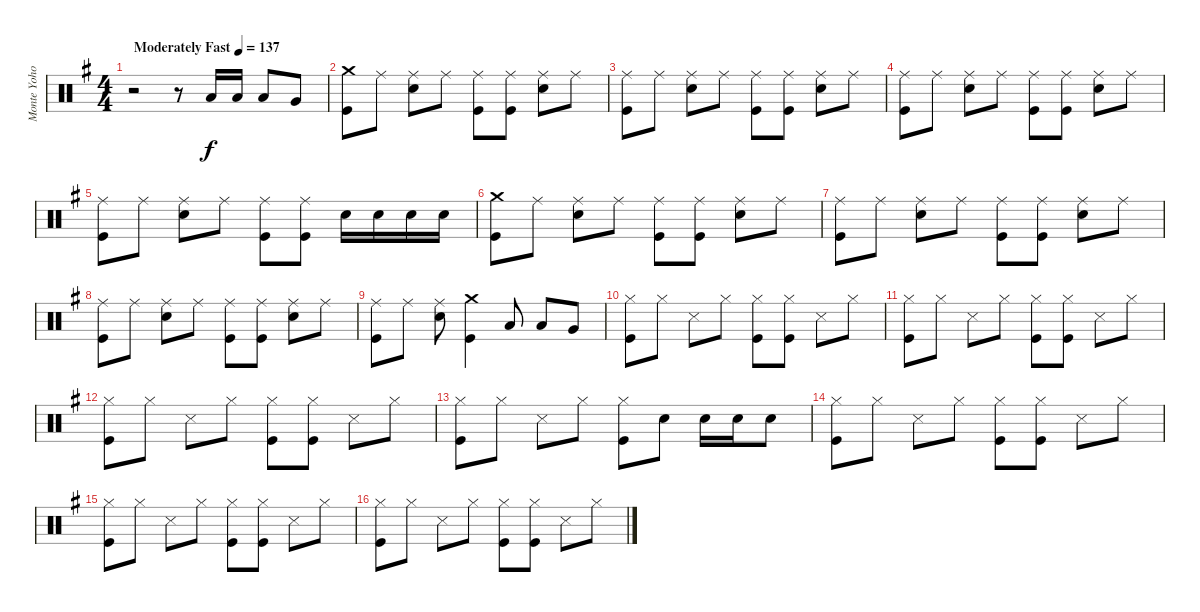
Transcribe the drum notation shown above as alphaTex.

\track ("Monte Yoho Drums" "Monte Yoho") {instrument percussion}
\staff {score}
\articulation defaults
\ts (4 4)
\tempo (137 "Moderately Fast")
\clef neutral
\ks g
r.2{dy f} r.8 "Low Tom (hit)".16 "Low Tom (hit)".16 "Low Tom (hit)".8 "Very Low Tom (hit)".8 |
("Crash medium (hit)" "Kick (hit)").8 "Ride (middle)".8 ("Ride (middle)" "Snare (hit) 2").8 "Ride (middle)".8 ("Ride (middle)" "Kick (hit)").8 ("Ride (middle)" "Kick (hit)").8 ("Ride (middle)" "Snare (hit) 2").8 "Ride (middle)".8 |
("Ride (middle)" "Kick (hit)").8 "Ride (middle)".8 ("Ride (middle)" "Snare (hit) 2").8 "Ride (middle)".8 ("Ride (middle)" "Kick (hit)").8 ("Ride (middle)" "Kick (hit)").8 ("Ride (middle)" "Snare (hit) 2").8 "Ride (middle)".8 |
("Ride (middle)" "Kick (hit)").8 "Ride (middle)".8 ("Ride (middle)" "Snare (hit) 2").8 "Ride (middle)".8 ("Ride (middle)" "Kick (hit)").8 ("Ride (middle)" "Kick (hit)").8 ("Ride (middle)" "Snare (hit) 2").8 "Ride (middle)".8 |
("Ride (middle)" "Kick (hit)").8 "Ride (middle)".8 ("Ride (middle)" "Snare (hit) 2").8 "Ride (middle)".8 ("Ride (middle)" "Kick (hit)").8 ("Ride (middle)" "Kick (hit)").8 "Snare (hit) 2".16 "Snare (hit) 2".16 "Snare (hit) 2".16 "Snare (hit) 2".16 |
("Crash medium (hit)" "Kick (hit)").8 "Ride (middle)".8 ("Ride (middle)" "Snare (hit) 2").8 "Ride (middle)".8 ("Ride (middle)" "Kick (hit)").8 ("Ride (middle)" "Kick (hit)").8 ("Ride (middle)" "Snare (hit) 2").8 "Ride (middle)".8 |
("Ride (middle)" "Kick (hit)").8 "Ride (middle)".8 ("Ride (middle)" "Snare (hit) 2").8 "Ride (middle)".8 ("Ride (middle)" "Kick (hit)").8 ("Ride (middle)" "Kick (hit)").8 ("Ride (middle)" "Snare (hit) 2").8 "Ride (middle)".8 |
("Ride (middle)" "Kick (hit)").8 "Ride (middle)".8 ("Ride (middle)" "Snare (hit) 2").8 "Ride (middle)".8 ("Ride (middle)" "Kick (hit)").8 ("Ride (middle)" "Kick (hit)").8 ("Ride (middle)" "Snare (hit) 2").8 "Ride (middle)".8 |
("Ride (middle)" "Kick (hit)").8 "Ride (middle)".8 ("Ride (middle)" "Snare (hit) 2").8 ("Crash medium (hit)" "Kick (hit)").4 "Low Tom (hit)".8 "Low Tom (hit)".8 "Very Low Tom (hit)".8 |
("Hi-Hat (closed)" "Kick (hit)").8 "Hi-Hat (closed)".8 "Snare (side stick) 3".8 "Hi-Hat (closed)".8 ("Hi-Hat (closed)" "Kick (hit)").8 ("Hi-Hat (closed)" "Kick (hit)").8 "Snare (side stick) 3".8 "Hi-Hat (closed)".8 |
("Hi-Hat (closed)" "Kick (hit)").8 "Hi-Hat (closed)".8 "Snare (side stick) 3".8 "Hi-Hat (closed)".8 ("Hi-Hat (closed)" "Kick (hit)").8 ("Hi-Hat (closed)" "Kick (hit)").8 "Snare (side stick) 3".8 "Hi-Hat (closed)".8 |
("Hi-Hat (closed)" "Kick (hit)").8 "Hi-Hat (closed)".8 "Snare (side stick) 3".8 "Hi-Hat (closed)".8 ("Hi-Hat (closed)" "Kick (hit)").8 ("Hi-Hat (closed)" "Kick (hit)").8 "Snare (side stick) 3".8 "Hi-Hat (closed)".8 |
("Hi-Hat (closed)" "Kick (hit)").8 "Hi-Hat (closed)".8 "Snare (side stick) 3".8 "Hi-Hat (closed)".8 ("Hi-Hat (closed)" "Kick (hit)").8 "Snare (hit) 2".8 "Snare (hit) 2".16 "Snare (hit) 2".16 "Snare (hit) 2".8 |
("Hi-Hat (closed)" "Kick (hit)").8 "Hi-Hat (closed)".8 "Snare (side stick) 3".8 "Hi-Hat (closed)".8 ("Hi-Hat (closed)" "Kick (hit)").8 ("Hi-Hat (closed)" "Kick (hit)").8 "Snare (side stick) 3".8 "Hi-Hat (closed)".8 |
("Hi-Hat (closed)" "Kick (hit)").8 "Hi-Hat (closed)".8 "Snare (side stick) 3".8 "Hi-Hat (closed)".8 ("Hi-Hat (closed)" "Kick (hit)").8 ("Hi-Hat (closed)" "Kick (hit)").8 "Snare (side stick) 3".8 "Hi-Hat (closed)".8 |
("Hi-Hat (closed)" "Kick (hit)").8 "Hi-Hat (closed)".8 "Snare (side stick) 3".8 "Hi-Hat (closed)".8 ("Hi-Hat (closed)" "Kick (hit)").8 ("Hi-Hat (closed)" "Kick (hit)").8 "Snare (side stick) 3".8 "Hi-Hat (closed)".8
